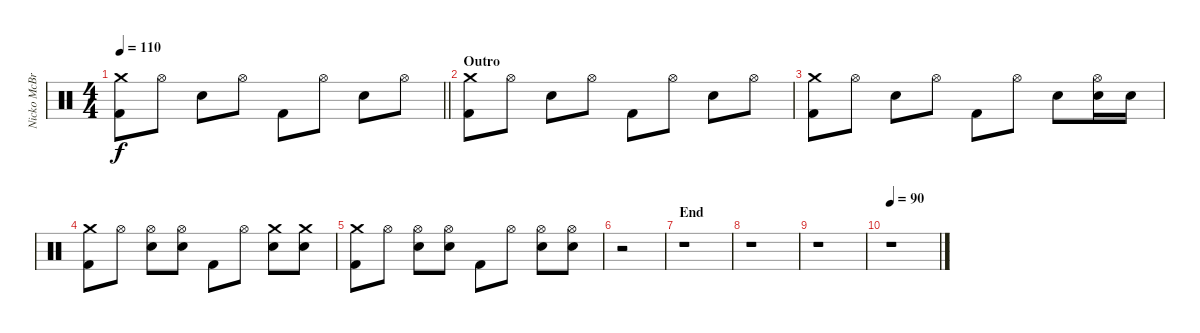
\track ("Nicko McBrain" "Nicko McBr") {instrument percussion}
\staff {score}
\articulation defaults
\ts (4 4)
\tempo 110
\clef neutral
\barLineRight lightlight
\ks c
("Crash medium (hit)" "Kick (hit) 2").8{dy f} "Hi-Hat (open)".8 "Snare (hit) 2".8 "Hi-Hat (open)".8 "Kick (hit) 2".8 "Hi-Hat (open)".8 "Snare (hit) 2".8 "Hi-Hat (open)".8 |
\section ("" "Outro")
("Crash medium (hit)" "Kick (hit) 2").8 "Hi-Hat (open)".8 "Snare (hit) 2".8 "Hi-Hat (open)".8 "Kick (hit) 2".8 "Hi-Hat (open)".8 "Snare (hit) 2".8 "Hi-Hat (open)".8 |
("Crash medium (hit)" "Kick (hit) 2").8 "Hi-Hat (open)".8 "Snare (hit) 2".8 "Hi-Hat (open)".8 "Kick (hit) 2".8 "Hi-Hat (open)".8 "Snare (hit) 2".8 ("Snare (hit) 2" "Hi-Hat (open)").16 "Snare (hit) 2".16 |
("Crash medium (hit)" "Kick (hit) 2").8 "Hi-Hat (open)".8 ("Snare (hit) 2" "Hi-Hat (open)").8 ("Snare (hit) 2" "Hi-Hat (open)").8 "Kick (hit) 2".8 "Hi-Hat (open)".8 ("Snare (hit) 2" "Crash medium (hit)").8 ("Snare (hit) 2" "Crash medium (hit)").8 |
("Crash medium (hit)" "Kick (hit) 2").8 "Hi-Hat (open)".8 ("Snare (hit) 2" "Hi-Hat (open)").8 ("Snare (hit) 2" "Hi-Hat (open)").8 "Kick (hit) 2".8 "Hi-Hat (open)".8 ("Snare (hit) 2" "Hi-Hat (open)").8 ("Snare (hit) 2" "Hi-Hat (open)").8 |
r.2 |
\section ("" "End")
r.1 |
r.1 |
r.1 |
\tempo 90
r.1
